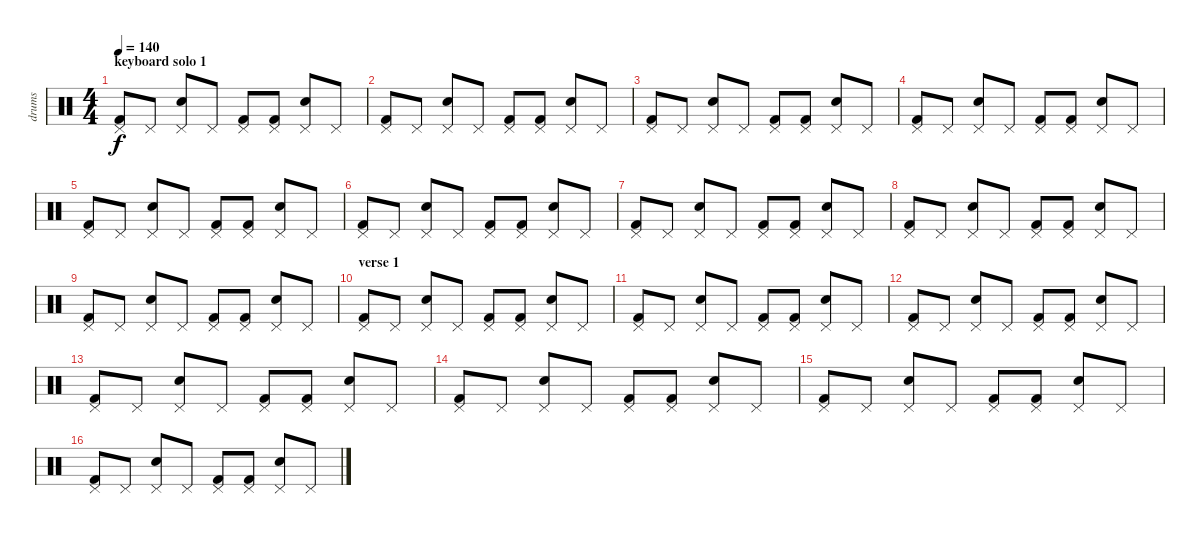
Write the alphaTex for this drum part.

\track ("drums" "drums") {instrument percussion}
\staff {score}
\articulation defaults
\ts (4 4)
\section ("" "keyboard solo 1")
\tempo 140
\clef neutral
\ks c
("Kick (hit) 2" "Pedal Hi-Hat (hit)").8{dy f} "Pedal Hi-Hat (hit)".8 ("Snare (hit) 2" "Pedal Hi-Hat (hit)").8 "Pedal Hi-Hat (hit)".8 ("Kick (hit) 2" "Pedal Hi-Hat (hit)").8 ("Kick (hit) 2" "Pedal Hi-Hat (hit)").8 ("Snare (hit) 2" "Pedal Hi-Hat (hit)").8 "Pedal Hi-Hat (hit)".8 |
("Kick (hit) 2" "Pedal Hi-Hat (hit)").8 "Pedal Hi-Hat (hit)".8 ("Snare (hit) 2" "Pedal Hi-Hat (hit)").8 "Pedal Hi-Hat (hit)".8 ("Kick (hit) 2" "Pedal Hi-Hat (hit)").8 ("Kick (hit) 2" "Pedal Hi-Hat (hit)").8 ("Snare (hit) 2" "Pedal Hi-Hat (hit)").8 "Pedal Hi-Hat (hit)".8 |
("Kick (hit) 2" "Pedal Hi-Hat (hit)").8 "Pedal Hi-Hat (hit)".8 ("Snare (hit) 2" "Pedal Hi-Hat (hit)").8 "Pedal Hi-Hat (hit)".8 ("Kick (hit) 2" "Pedal Hi-Hat (hit)").8 ("Kick (hit) 2" "Pedal Hi-Hat (hit)").8 ("Snare (hit) 2" "Pedal Hi-Hat (hit)").8 "Pedal Hi-Hat (hit)".8 |
("Kick (hit) 2" "Pedal Hi-Hat (hit)").8 "Pedal Hi-Hat (hit)".8 ("Snare (hit) 2" "Pedal Hi-Hat (hit)").8 "Pedal Hi-Hat (hit)".8 ("Kick (hit) 2" "Pedal Hi-Hat (hit)").8 ("Kick (hit) 2" "Pedal Hi-Hat (hit)").8 ("Snare (hit) 2" "Pedal Hi-Hat (hit)").8 "Pedal Hi-Hat (hit)".8 |
("Kick (hit) 2" "Pedal Hi-Hat (hit)").8 "Pedal Hi-Hat (hit)".8 ("Snare (hit) 2" "Pedal Hi-Hat (hit)").8 "Pedal Hi-Hat (hit)".8 ("Kick (hit) 2" "Pedal Hi-Hat (hit)").8 ("Kick (hit) 2" "Pedal Hi-Hat (hit)").8 ("Snare (hit) 2" "Pedal Hi-Hat (hit)").8 "Pedal Hi-Hat (hit)".8 |
("Kick (hit) 2" "Pedal Hi-Hat (hit)").8 "Pedal Hi-Hat (hit)".8 ("Snare (hit) 2" "Pedal Hi-Hat (hit)").8 "Pedal Hi-Hat (hit)".8 ("Kick (hit) 2" "Pedal Hi-Hat (hit)").8 ("Kick (hit) 2" "Pedal Hi-Hat (hit)").8 ("Snare (hit) 2" "Pedal Hi-Hat (hit)").8 "Pedal Hi-Hat (hit)".8 |
("Kick (hit) 2" "Pedal Hi-Hat (hit)").8 "Pedal Hi-Hat (hit)".8 ("Snare (hit) 2" "Pedal Hi-Hat (hit)").8 "Pedal Hi-Hat (hit)".8 ("Kick (hit) 2" "Pedal Hi-Hat (hit)").8 ("Kick (hit) 2" "Pedal Hi-Hat (hit)").8 ("Snare (hit) 2" "Pedal Hi-Hat (hit)").8 "Pedal Hi-Hat (hit)".8 |
("Kick (hit) 2" "Pedal Hi-Hat (hit)").8 "Pedal Hi-Hat (hit)".8 ("Snare (hit) 2" "Pedal Hi-Hat (hit)").8 "Pedal Hi-Hat (hit)".8 ("Kick (hit) 2" "Pedal Hi-Hat (hit)").8 ("Kick (hit) 2" "Pedal Hi-Hat (hit)").8 ("Snare (hit) 2" "Pedal Hi-Hat (hit)").8 "Pedal Hi-Hat (hit)".8 |
("Kick (hit) 2" "Pedal Hi-Hat (hit)").8 "Pedal Hi-Hat (hit)".8 ("Snare (hit) 2" "Pedal Hi-Hat (hit)").8 "Pedal Hi-Hat (hit)".8 ("Kick (hit) 2" "Pedal Hi-Hat (hit)").8 ("Kick (hit) 2" "Pedal Hi-Hat (hit)").8 ("Snare (hit) 2" "Pedal Hi-Hat (hit)").8 "Pedal Hi-Hat (hit)".8 |
\section ("" "verse 1")
("Kick (hit) 2" "Pedal Hi-Hat (hit)").8 "Pedal Hi-Hat (hit)".8 ("Snare (hit) 2" "Pedal Hi-Hat (hit)").8 "Pedal Hi-Hat (hit)".8 ("Kick (hit) 2" "Pedal Hi-Hat (hit)").8 ("Kick (hit) 2" "Pedal Hi-Hat (hit)").8 ("Snare (hit) 2" "Pedal Hi-Hat (hit)").8 "Pedal Hi-Hat (hit)".8 |
("Kick (hit) 2" "Pedal Hi-Hat (hit)").8 "Pedal Hi-Hat (hit)".8 ("Snare (hit) 2" "Pedal Hi-Hat (hit)").8 "Pedal Hi-Hat (hit)".8 ("Kick (hit) 2" "Pedal Hi-Hat (hit)").8 ("Kick (hit) 2" "Pedal Hi-Hat (hit)").8 ("Snare (hit) 2" "Pedal Hi-Hat (hit)").8 "Pedal Hi-Hat (hit)".8 |
("Kick (hit) 2" "Pedal Hi-Hat (hit)").8 "Pedal Hi-Hat (hit)".8 ("Snare (hit) 2" "Pedal Hi-Hat (hit)").8 "Pedal Hi-Hat (hit)".8 ("Kick (hit) 2" "Pedal Hi-Hat (hit)").8 ("Kick (hit) 2" "Pedal Hi-Hat (hit)").8 ("Snare (hit) 2" "Pedal Hi-Hat (hit)").8 "Pedal Hi-Hat (hit)".8 |
("Kick (hit) 2" "Pedal Hi-Hat (hit)").8 "Pedal Hi-Hat (hit)".8 ("Snare (hit) 2" "Pedal Hi-Hat (hit)").8 "Pedal Hi-Hat (hit)".8 ("Kick (hit) 2" "Pedal Hi-Hat (hit)").8 ("Kick (hit) 2" "Pedal Hi-Hat (hit)").8 ("Snare (hit) 2" "Pedal Hi-Hat (hit)").8 "Pedal Hi-Hat (hit)".8 |
("Kick (hit) 2" "Pedal Hi-Hat (hit)").8 "Pedal Hi-Hat (hit)".8 ("Snare (hit) 2" "Pedal Hi-Hat (hit)").8 "Pedal Hi-Hat (hit)".8 ("Kick (hit) 2" "Pedal Hi-Hat (hit)").8 ("Kick (hit) 2" "Pedal Hi-Hat (hit)").8 ("Snare (hit) 2" "Pedal Hi-Hat (hit)").8 "Pedal Hi-Hat (hit)".8 |
("Kick (hit) 2" "Pedal Hi-Hat (hit)").8 "Pedal Hi-Hat (hit)".8 ("Snare (hit) 2" "Pedal Hi-Hat (hit)").8 "Pedal Hi-Hat (hit)".8 ("Kick (hit) 2" "Pedal Hi-Hat (hit)").8 ("Kick (hit) 2" "Pedal Hi-Hat (hit)").8 ("Snare (hit) 2" "Pedal Hi-Hat (hit)").8 "Pedal Hi-Hat (hit)".8 |
("Kick (hit) 2" "Pedal Hi-Hat (hit)").8 "Pedal Hi-Hat (hit)".8 ("Snare (hit) 2" "Pedal Hi-Hat (hit)").8 "Pedal Hi-Hat (hit)".8 ("Kick (hit) 2" "Pedal Hi-Hat (hit)").8 ("Kick (hit) 2" "Pedal Hi-Hat (hit)").8 ("Snare (hit) 2" "Pedal Hi-Hat (hit)").8 "Pedal Hi-Hat (hit)".8
